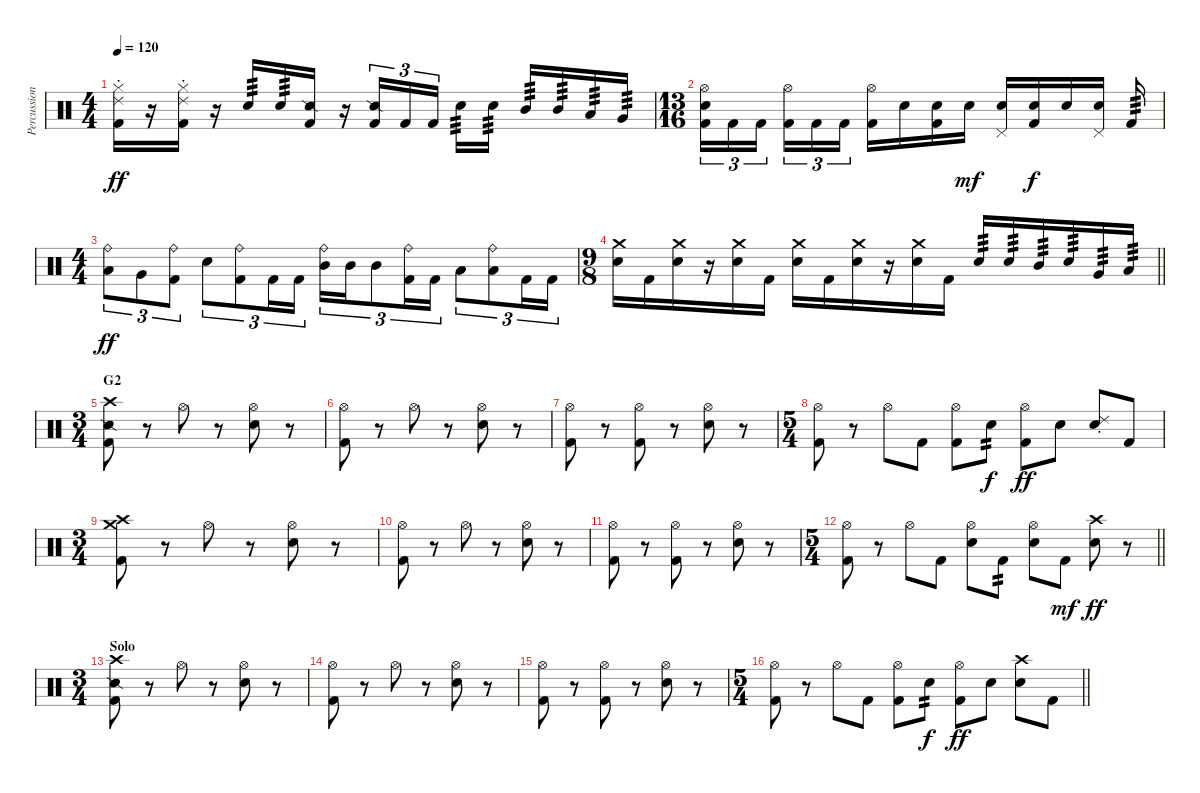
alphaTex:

\track ("Percussion" "Percussion") {instrument percussion}
\staff {score}
\articulation defaults
\ts (4 4)
\tempo 120
\clef neutral
\ks c
("Hi-Hat (closed)" "Ride (choke) 2" "Kick (hit) 2").16{dy ff} r.16 ("Hi-Hat (closed)" "Ride (choke) 2" "Kick (hit) 2").16 r.16 "Snare (hit) 2".16{tp 3} "Snare (hit) 2".16{tp 3} ("Snare (side stick) 2" "Kick (hit) 2").16 r.16 ("Snare (side stick) 2" "Kick (hit) 2").16{tu (3 2)} "Kick (hit) 2".16{tu (3 2)} "Kick (hit) 2".16{tu (3 2) beam splitsecondary} "Snare (hit) 2".16{tp 3} "Snare (hit) 2".16{tp 3} "Mid Tom (hit)".16{tp 3} "Mid Tom (hit)".16{tp 3} "Low Tom (hit)".16{tp 3} "Very Low Tom (hit)".16{tp 3} |
\ts (13 16)
("Hi-Hat (open)" "Snare (hit) 2" "Kick (hit) 2").16{tu (3 2)} "Kick (hit) 2".16{tu (3 2)} "Kick (hit) 2".16{tu (3 2)} ("Hi-Hat (open)" "Kick (hit) 2").16{tu (3 2)} "Kick (hit) 2".16{tu (3 2)} "Kick (hit) 2".16{tu (3 2)} ("Hi-Hat (open)" "Kick (hit) 2").16 "Snare (hit) 2".16 ("Snare (hit)" "Kick (hit) 2").16 "Snare (hit) 2".16{dy mf} ("Pedal Hi-Hat (hit)" "Snare (hit) 2").16 ("Snare (hit)" "Kick (hit) 2").16{dy f} "Snare (hit) 2".16 ("Pedal Hi-Hat (hit)" "Snare (hit) 2").16 "Kick (hit) 2".16{tp 3} |
\ts (4 4)
("Ride (bell)" "Low Tom (hit)").8{tu (3 2) dy ff} "Very Low Tom (hit)".8{tu (3 2)} ("Ride (bell)" "Kick (hit) 2").8{tu (3 2)} "Snare (hit) 2".8{tu (3 2)} ("Ride (bell)" "Kick (hit) 2").8{tu (3 2)} "Kick (hit) 2".16{tu (3 2)} "Kick (hit) 2".16{tu (3 2)} ("Ride (bell)" "Mid Tom (hit)").16{tu (3 2)} "Mid Tom (hit)".16{tu (3 2)} "Mid Tom (hit)".8{tu (3 2)} ("Ride (bell)" "Kick (hit) 2").16{tu (3 2)} "Kick (hit) 2".16{tu (3 2)} "Low Tom (hit)".8{tu (3 2)} ("Ride (bell)" "Low Tom (hit)").8{tu (3 2)} "Kick (hit) 2".16{tu (3 2)} "Kick (hit) 2".16{tu (3 2)} |
\ts (9 8)
\barLineRight lightlight
("Crash medium (hit)" "Snare (hit) 2").16 "Kick (hit) 2".16 ("Crash medium (hit)" "Snare (hit) 2").16 r.16 ("Crash medium (hit)" "Snare (hit) 2").16 "Kick (hit) 2".16 ("Crash medium (hit)" "Snare (hit) 2").16 "Kick (hit) 2".16 ("Crash medium (hit)" "Snare (hit) 2").16 r.16 ("Crash medium (hit)" "Snare (hit) 2").16 "Kick (hit) 2".16 "Snare (hit) 2".16{tp 3} "Snare (hit) 2".16{tp 3} "Mid Tom (hit)".16{tp 3} "Snare (hit) 2".16{tp 3} "Very Low Tom (hit)".16{tp 3} "Low Floor Tom (hit)".16{tp 3} |
\ts (3 4)
\section ("" "G2")
("Snare (side stick) 2" "Crash high (hit)" "Kick (hit) 2").8 r.8 "Hi-Hat (open)".8 r.8 ("Hi-Hat (open)" "Snare (hit) 2").8 r.8 |
("Hi-Hat (open)" "Kick (hit) 2").8 r.8 "Hi-Hat (open)".8 r.8 ("Hi-Hat (open)" "Snare (hit) 2").8 r.8 |
("Hi-Hat (open)" "Kick (hit) 2").8 r.8 ("Hi-Hat (open)" "Kick (hit) 2").8 r.8 ("Hi-Hat (open)" "Snare (hit) 2").8 r.8 |
\ts (5 4)
("Hi-Hat (open)" "Kick (hit) 2").8 r.8 "Hi-Hat (open)".8 "Kick (hit) 2".8 ("Hi-Hat (open)" "Kick (hit) 2").8 "Snare (hit) 2".8{tp 2 dy f} ("Hi-Hat (open)" "Kick (hit) 2").8{dy ff} "Snare (hit) 2".8 ("Ride (choke) 2" "Snare (hit) 2").8 "Kick (hit) 2".8 |
\ts (3 4)
("Crash medium (hit)" "Crash high (hit)" "Kick (hit) 2").8 r.8 "Hi-Hat (open)".8 r.8 ("Hi-Hat (open)" "Snare (hit) 2").8 r.8 |
("Hi-Hat (open)" "Kick (hit) 2").8 r.8 "Hi-Hat (open)".8 r.8 ("Hi-Hat (open)" "Snare (hit) 2").8 r.8 |
("Hi-Hat (open)" "Kick (hit) 2").8 r.8 ("Hi-Hat (open)" "Kick (hit) 2").8 r.8 ("Hi-Hat (open)" "Snare (hit) 2").8 r.8 |
\ts (5 4)
\barLineRight lightlight
("Hi-Hat (open)" "Kick (hit) 2").8 r.8 "Hi-Hat (open)".8 "Kick (hit) 2".8 ("Hi-Hat (open)" "Snare (hit) 2").8 "Kick (hit) 2".8{tp 2} ("Hi-Hat (open)" "Snare (hit) 2").8 "Kick (hit) 2".8{dy mf} ("Crash high (hit)" "Snare (hit) 2").8{dy ff} r.8 |
\ts (3 4)
\section ("" "Solo")
("Snare (side stick) 2" "Crash high (hit)" "Kick (hit) 2").8 r.8 "Hi-Hat (open)".8 r.8 ("Hi-Hat (open)" "Snare (hit) 2").8 r.8 |
("Hi-Hat (open)" "Kick (hit) 2").8 r.8 "Hi-Hat (open)".8 r.8 ("Hi-Hat (open)" "Snare (hit) 2").8 r.8 |
("Hi-Hat (open)" "Kick (hit) 2").8 r.8 ("Hi-Hat (open)" "Kick (hit) 2").8 r.8 ("Hi-Hat (open)" "Snare (hit) 2").8 r.8 |
\ts (5 4)
\barLineRight lightlight
("Hi-Hat (open)" "Kick (hit) 2").8 r.8 "Hi-Hat (open)".8 "Kick (hit) 2".8 ("Hi-Hat (open)" "Kick (hit) 2").8 "Snare (hit) 2".8{tp 2 dy f} ("Hi-Hat (open)" "Kick (hit) 2").8{dy ff} "Snare (hit) 2".8 ("Crash high (hit)" "Snare (hit) 2").8 "Kick (hit) 2".8
